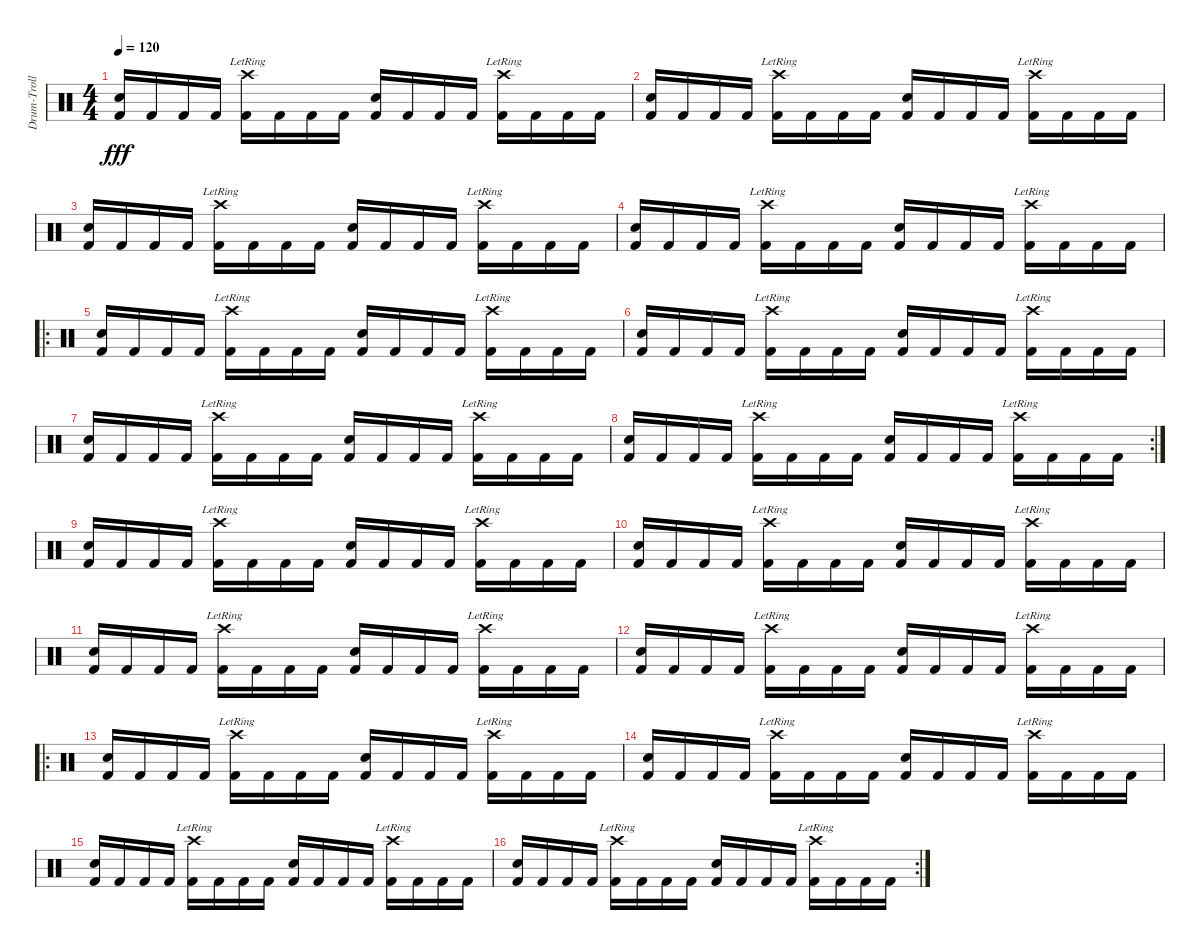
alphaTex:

\track ("Drum-Troll" "Drum-Troll") {instrument percussion}
\staff {score}
\articulation defaults
\ts (4 4)
\tempo 120
\clef neutral
\ks c
("Kick (hit) 2" "Electric Snare (hit)").16{dy fff} "Kick (hit) 2".16 "Kick (hit) 2".16 "Kick (hit) 2".16 ("Kick (hit) 2" "Crash high (hit)"{lr}).16 "Kick (hit) 2".16 "Kick (hit) 2".16 "Kick (hit) 2".16 ("Kick (hit) 2" "Electric Snare (hit)").16 "Kick (hit) 2".16 "Kick (hit) 2".16 "Kick (hit) 2".16 ("Kick (hit) 2" "Crash high (hit)"{lr}).16 "Kick (hit) 2".16 "Kick (hit) 2".16 "Kick (hit) 2".16 |
("Kick (hit) 2" "Electric Snare (hit)").16 "Kick (hit) 2".16 "Kick (hit) 2".16 "Kick (hit) 2".16 ("Kick (hit) 2" "Crash high (hit)"{lr}).16 "Kick (hit) 2".16 "Kick (hit) 2".16 "Kick (hit) 2".16 ("Kick (hit) 2" "Electric Snare (hit)").16 "Kick (hit) 2".16 "Kick (hit) 2".16 "Kick (hit) 2".16 ("Kick (hit) 2" "Crash high (hit)"{lr}).16 "Kick (hit) 2".16 "Kick (hit) 2".16 "Kick (hit) 2".16 |
("Kick (hit) 2" "Electric Snare (hit)").16 "Kick (hit) 2".16 "Kick (hit) 2".16 "Kick (hit) 2".16 ("Kick (hit) 2" "Crash high (hit)"{lr}).16 "Kick (hit) 2".16 "Kick (hit) 2".16 "Kick (hit) 2".16 ("Kick (hit) 2" "Electric Snare (hit)").16 "Kick (hit) 2".16 "Kick (hit) 2".16 "Kick (hit) 2".16 ("Kick (hit) 2" "Crash high (hit)"{lr}).16 "Kick (hit) 2".16 "Kick (hit) 2".16 "Kick (hit) 2".16 |
("Kick (hit) 2" "Electric Snare (hit)").16 "Kick (hit) 2".16 "Kick (hit) 2".16 "Kick (hit) 2".16 ("Kick (hit) 2" "Crash high (hit)"{lr}).16 "Kick (hit) 2".16 "Kick (hit) 2".16 "Kick (hit) 2".16 ("Kick (hit) 2" "Electric Snare (hit)").16 "Kick (hit) 2".16 "Kick (hit) 2".16 "Kick (hit) 2".16 ("Kick (hit) 2" "Crash high (hit)"{lr}).16 "Kick (hit) 2".16 "Kick (hit) 2".16 "Kick (hit) 2".16 |
\ro
("Kick (hit) 2" "Electric Snare (hit)").16 "Kick (hit) 2".16 "Kick (hit) 2".16 "Kick (hit) 2".16 ("Kick (hit) 2" "Crash high (hit)"{lr}).16 "Kick (hit) 2".16 "Kick (hit) 2".16 "Kick (hit) 2".16 ("Kick (hit) 2" "Electric Snare (hit)").16 "Kick (hit) 2".16 "Kick (hit) 2".16 "Kick (hit) 2".16 ("Kick (hit) 2" "Crash high (hit)"{lr}).16 "Kick (hit) 2".16 "Kick (hit) 2".16 "Kick (hit) 2".16 |
("Kick (hit) 2" "Electric Snare (hit)").16 "Kick (hit) 2".16 "Kick (hit) 2".16 "Kick (hit) 2".16 ("Kick (hit) 2" "Crash high (hit)"{lr}).16 "Kick (hit) 2".16 "Kick (hit) 2".16 "Kick (hit) 2".16 ("Kick (hit) 2" "Electric Snare (hit)").16 "Kick (hit) 2".16 "Kick (hit) 2".16 "Kick (hit) 2".16 ("Kick (hit) 2" "Crash high (hit)"{lr}).16 "Kick (hit) 2".16 "Kick (hit) 2".16 "Kick (hit) 2".16 |
("Kick (hit) 2" "Electric Snare (hit)").16 "Kick (hit) 2".16 "Kick (hit) 2".16 "Kick (hit) 2".16 ("Kick (hit) 2" "Crash high (hit)"{lr}).16 "Kick (hit) 2".16 "Kick (hit) 2".16 "Kick (hit) 2".16 ("Kick (hit) 2" "Electric Snare (hit)").16 "Kick (hit) 2".16 "Kick (hit) 2".16 "Kick (hit) 2".16 ("Kick (hit) 2" "Crash high (hit)"{lr}).16 "Kick (hit) 2".16 "Kick (hit) 2".16 "Kick (hit) 2".16 |
\rc 2
("Kick (hit) 2" "Electric Snare (hit)").16 "Kick (hit) 2".16 "Kick (hit) 2".16 "Kick (hit) 2".16 ("Kick (hit) 2" "Crash high (hit)"{lr}).16 "Kick (hit) 2".16 "Kick (hit) 2".16 "Kick (hit) 2".16 ("Kick (hit) 2" "Electric Snare (hit)").16 "Kick (hit) 2".16 "Kick (hit) 2".16 "Kick (hit) 2".16 ("Kick (hit) 2" "Crash high (hit)"{lr}).16 "Kick (hit) 2".16 "Kick (hit) 2".16 "Kick (hit) 2".16 |
("Kick (hit) 2" "Electric Snare (hit)").16 "Kick (hit) 2".16 "Kick (hit) 2".16 "Kick (hit) 2".16 ("Kick (hit) 2" "Crash high (hit)"{lr}).16 "Kick (hit) 2".16 "Kick (hit) 2".16 "Kick (hit) 2".16 ("Kick (hit) 2" "Electric Snare (hit)").16 "Kick (hit) 2".16 "Kick (hit) 2".16 "Kick (hit) 2".16 ("Kick (hit) 2" "Crash high (hit)"{lr}).16 "Kick (hit) 2".16 "Kick (hit) 2".16 "Kick (hit) 2".16 |
("Kick (hit) 2" "Electric Snare (hit)").16 "Kick (hit) 2".16 "Kick (hit) 2".16 "Kick (hit) 2".16 ("Kick (hit) 2" "Crash high (hit)"{lr}).16 "Kick (hit) 2".16 "Kick (hit) 2".16 "Kick (hit) 2".16 ("Kick (hit) 2" "Electric Snare (hit)").16 "Kick (hit) 2".16 "Kick (hit) 2".16 "Kick (hit) 2".16 ("Kick (hit) 2" "Crash high (hit)"{lr}).16 "Kick (hit) 2".16 "Kick (hit) 2".16 "Kick (hit) 2".16 |
("Kick (hit) 2" "Electric Snare (hit)").16 "Kick (hit) 2".16 "Kick (hit) 2".16 "Kick (hit) 2".16 ("Kick (hit) 2" "Crash high (hit)"{lr}).16 "Kick (hit) 2".16 "Kick (hit) 2".16 "Kick (hit) 2".16 ("Kick (hit) 2" "Electric Snare (hit)").16 "Kick (hit) 2".16 "Kick (hit) 2".16 "Kick (hit) 2".16 ("Kick (hit) 2" "Crash high (hit)"{lr}).16 "Kick (hit) 2".16 "Kick (hit) 2".16 "Kick (hit) 2".16 |
("Kick (hit) 2" "Electric Snare (hit)").16 "Kick (hit) 2".16 "Kick (hit) 2".16 "Kick (hit) 2".16 ("Kick (hit) 2" "Crash high (hit)"{lr}).16 "Kick (hit) 2".16 "Kick (hit) 2".16 "Kick (hit) 2".16 ("Kick (hit) 2" "Electric Snare (hit)").16 "Kick (hit) 2".16 "Kick (hit) 2".16 "Kick (hit) 2".16 ("Kick (hit) 2" "Crash high (hit)"{lr}).16 "Kick (hit) 2".16 "Kick (hit) 2".16 "Kick (hit) 2".16 |
\ro
("Kick (hit) 2" "Electric Snare (hit)").16 "Kick (hit) 2".16 "Kick (hit) 2".16 "Kick (hit) 2".16 ("Kick (hit) 2" "Crash high (hit)"{lr}).16 "Kick (hit) 2".16 "Kick (hit) 2".16 "Kick (hit) 2".16 ("Kick (hit) 2" "Electric Snare (hit)").16 "Kick (hit) 2".16 "Kick (hit) 2".16 "Kick (hit) 2".16 ("Kick (hit) 2" "Crash high (hit)"{lr}).16 "Kick (hit) 2".16 "Kick (hit) 2".16 "Kick (hit) 2".16 |
("Kick (hit) 2" "Electric Snare (hit)").16 "Kick (hit) 2".16 "Kick (hit) 2".16 "Kick (hit) 2".16 ("Kick (hit) 2" "Crash high (hit)"{lr}).16 "Kick (hit) 2".16 "Kick (hit) 2".16 "Kick (hit) 2".16 ("Kick (hit) 2" "Electric Snare (hit)").16 "Kick (hit) 2".16 "Kick (hit) 2".16 "Kick (hit) 2".16 ("Kick (hit) 2" "Crash high (hit)"{lr}).16 "Kick (hit) 2".16 "Kick (hit) 2".16 "Kick (hit) 2".16 |
("Kick (hit) 2" "Electric Snare (hit)").16 "Kick (hit) 2".16 "Kick (hit) 2".16 "Kick (hit) 2".16 ("Kick (hit) 2" "Crash high (hit)"{lr}).16 "Kick (hit) 2".16 "Kick (hit) 2".16 "Kick (hit) 2".16 ("Kick (hit) 2" "Electric Snare (hit)").16 "Kick (hit) 2".16 "Kick (hit) 2".16 "Kick (hit) 2".16 ("Kick (hit) 2" "Crash high (hit)"{lr}).16 "Kick (hit) 2".16 "Kick (hit) 2".16 "Kick (hit) 2".16 |
\rc 2
("Kick (hit) 2" "Electric Snare (hit)").16 "Kick (hit) 2".16 "Kick (hit) 2".16 "Kick (hit) 2".16 ("Kick (hit) 2" "Crash high (hit)"{lr}).16 "Kick (hit) 2".16 "Kick (hit) 2".16 "Kick (hit) 2".16 ("Kick (hit) 2" "Electric Snare (hit)").16 "Kick (hit) 2".16 "Kick (hit) 2".16 "Kick (hit) 2".16 ("Kick (hit) 2" "Crash high (hit)"{lr}).16 "Kick (hit) 2".16 "Kick (hit) 2".16 "Kick (hit) 2".16
